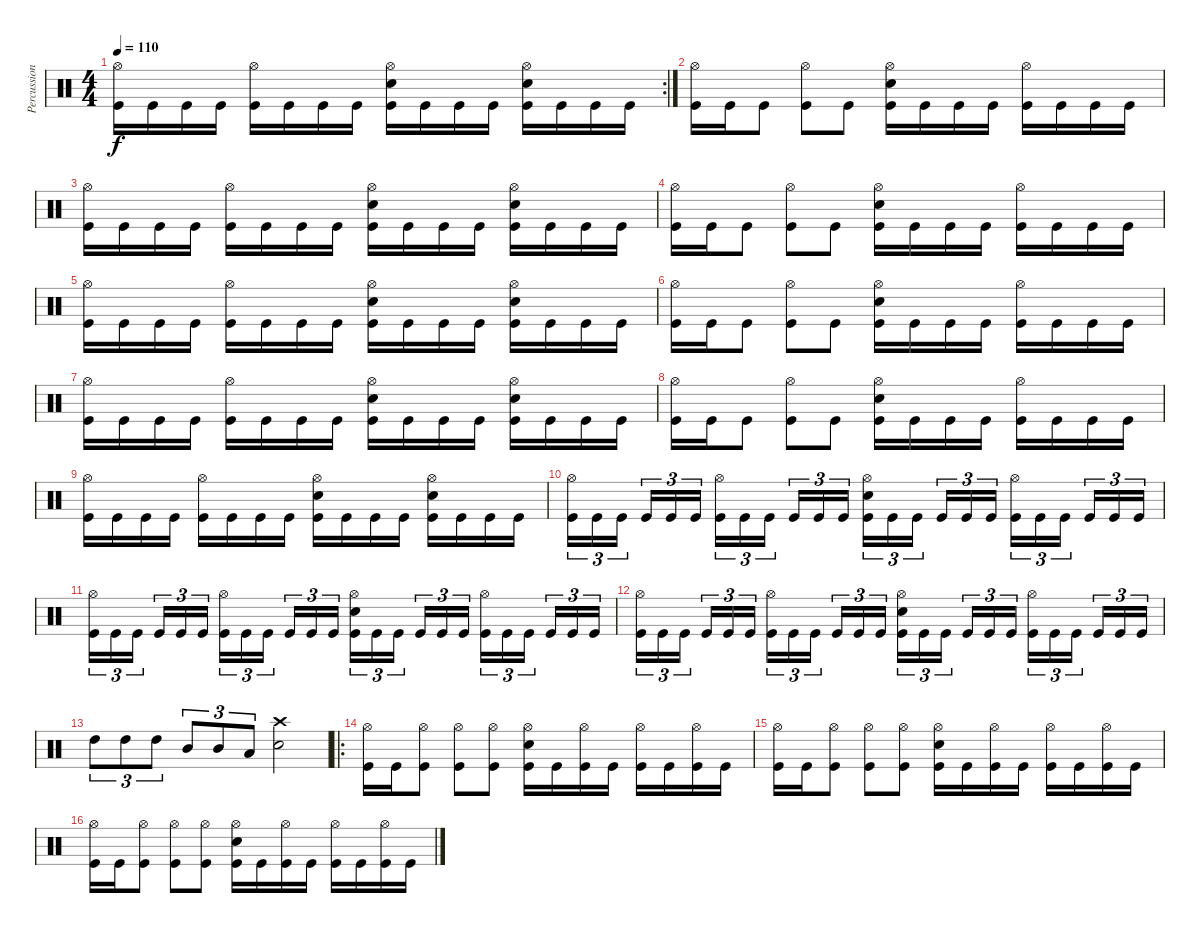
\track ("Percussion" "Percussion") {instrument percussion}
\staff {score}
\articulation defaults
\rc 2
\ts (4 4)
\tempo 110
\clef neutral
\ks c
("Hi-Hat (open)" "Kick (hit)").16{dy f} "Kick (hit)".16 "Kick (hit)".16 "Kick (hit)".16 ("Hi-Hat (open)" "Kick (hit)").16 "Kick (hit)".16 "Kick (hit)".16 "Kick (hit)".16 ("Hi-Hat (open)" "Electric Snare (hit)" "Kick (hit)").16 "Kick (hit)".16 "Kick (hit)".16 "Kick (hit)".16 ("Hi-Hat (open)" "Electric Snare (hit)" "Kick (hit)").16 "Kick (hit)".16 "Kick (hit)".16 "Kick (hit)".16 |
("Hi-Hat (open)" "Kick (hit)").16 "Kick (hit)".16 "Kick (hit)".8 ("Hi-Hat (open)" "Kick (hit)").8 "Kick (hit)".8 ("Hi-Hat (open)" "Electric Snare (hit)" "Kick (hit)").16 "Kick (hit)".16 "Kick (hit)".16 "Kick (hit)".16 ("Hi-Hat (open)" "Kick (hit)").16 "Kick (hit)".16 "Kick (hit)".16 "Kick (hit)".16 |
("Hi-Hat (open)" "Kick (hit)").16 "Kick (hit)".16 "Kick (hit)".16 "Kick (hit)".16 ("Hi-Hat (open)" "Kick (hit)").16 "Kick (hit)".16 "Kick (hit)".16 "Kick (hit)".16 ("Hi-Hat (open)" "Electric Snare (hit)" "Kick (hit)").16 "Kick (hit)".16 "Kick (hit)".16 "Kick (hit)".16 ("Hi-Hat (open)" "Electric Snare (hit)" "Kick (hit)").16 "Kick (hit)".16 "Kick (hit)".16 "Kick (hit)".16 |
("Hi-Hat (open)" "Kick (hit)").16 "Kick (hit)".16 "Kick (hit)".8 ("Hi-Hat (open)" "Kick (hit)").8 "Kick (hit)".8 ("Hi-Hat (open)" "Electric Snare (hit)" "Kick (hit)").16 "Kick (hit)".16 "Kick (hit)".16 "Kick (hit)".16 ("Hi-Hat (open)" "Kick (hit)").16 "Kick (hit)".16 "Kick (hit)".16 "Kick (hit)".16 |
("Hi-Hat (open)" "Kick (hit)").16 "Kick (hit)".16 "Kick (hit)".16 "Kick (hit)".16 ("Hi-Hat (open)" "Kick (hit)").16 "Kick (hit)".16 "Kick (hit)".16 "Kick (hit)".16 ("Hi-Hat (open)" "Electric Snare (hit)" "Kick (hit)").16 "Kick (hit)".16 "Kick (hit)".16 "Kick (hit)".16 ("Hi-Hat (open)" "Electric Snare (hit)" "Kick (hit)").16 "Kick (hit)".16 "Kick (hit)".16 "Kick (hit)".16 |
("Hi-Hat (open)" "Kick (hit)").16 "Kick (hit)".16 "Kick (hit)".8 ("Hi-Hat (open)" "Kick (hit)").8 "Kick (hit)".8 ("Hi-Hat (open)" "Electric Snare (hit)" "Kick (hit)").16 "Kick (hit)".16 "Kick (hit)".16 "Kick (hit)".16 ("Hi-Hat (open)" "Kick (hit)").16 "Kick (hit)".16 "Kick (hit)".16 "Kick (hit)".16 |
("Hi-Hat (open)" "Kick (hit)").16 "Kick (hit)".16 "Kick (hit)".16 "Kick (hit)".16 ("Hi-Hat (open)" "Kick (hit)").16 "Kick (hit)".16 "Kick (hit)".16 "Kick (hit)".16 ("Hi-Hat (open)" "Electric Snare (hit)" "Kick (hit)").16 "Kick (hit)".16 "Kick (hit)".16 "Kick (hit)".16 ("Hi-Hat (open)" "Electric Snare (hit)" "Kick (hit)").16 "Kick (hit)".16 "Kick (hit)".16 "Kick (hit)".16 |
("Hi-Hat (open)" "Kick (hit)").16 "Kick (hit)".16 "Kick (hit)".8 ("Hi-Hat (open)" "Kick (hit)").8 "Kick (hit)".8 ("Hi-Hat (open)" "Electric Snare (hit)" "Kick (hit)").16 "Kick (hit)".16 "Kick (hit)".16 "Kick (hit)".16 ("Hi-Hat (open)" "Kick (hit)").16 "Kick (hit)".16 "Kick (hit)".16 "Kick (hit)".16 |
("Hi-Hat (open)" "Kick (hit)").16 "Kick (hit)".16 "Kick (hit)".16 "Kick (hit)".16 ("Hi-Hat (open)" "Kick (hit)").16 "Kick (hit)".16 "Kick (hit)".16 "Kick (hit)".16 ("Hi-Hat (open)" "Electric Snare (hit)" "Kick (hit)").16 "Kick (hit)".16 "Kick (hit)".16 "Kick (hit)".16 ("Hi-Hat (open)" "Electric Snare (hit)" "Kick (hit)").16 "Kick (hit)".16 "Kick (hit)".16 "Kick (hit)".16 |
("Hi-Hat (open)" "Kick (hit)").16{tu (3 2)} "Kick (hit)".16{tu (3 2)} "Kick (hit)".16{tu (3 2) beam splitsecondary} "Kick (hit)".16{tu (3 2)} "Kick (hit)".16{tu (3 2)} "Kick (hit)".16{tu (3 2)} ("Hi-Hat (open)" "Kick (hit)").16{tu (3 2)} "Kick (hit)".16{tu (3 2)} "Kick (hit)".16{tu (3 2) beam splitsecondary} "Kick (hit)".16{tu (3 2)} "Kick (hit)".16{tu (3 2)} "Kick (hit)".16{tu (3 2)} ("Hi-Hat (open)" "Electric Snare (hit)" "Kick (hit)").16{tu (3 2)} "Kick (hit)".16{tu (3 2)} "Kick (hit)".16{tu (3 2) beam splitsecondary} "Kick (hit)".16{tu (3 2)} "Kick (hit)".16{tu (3 2)} "Kick (hit)".16{tu (3 2)} ("Hi-Hat (open)" "Kick (hit)").16{tu (3 2)} "Kick (hit)".16{tu (3 2)} "Kick (hit)".16{tu (3 2) beam splitsecondary} "Kick (hit)".16{tu (3 2)} "Kick (hit)".16{tu (3 2)} "Kick (hit)".16{tu (3 2)} |
("Hi-Hat (open)" "Kick (hit)").16{tu (3 2)} "Kick (hit)".16{tu (3 2)} "Kick (hit)".16{tu (3 2) beam splitsecondary} "Kick (hit)".16{tu (3 2)} "Kick (hit)".16{tu (3 2)} "Kick (hit)".16{tu (3 2)} ("Hi-Hat (open)" "Kick (hit)").16{tu (3 2)} "Kick (hit)".16{tu (3 2)} "Kick (hit)".16{tu (3 2) beam splitsecondary} "Kick (hit)".16{tu (3 2)} "Kick (hit)".16{tu (3 2)} "Kick (hit)".16{tu (3 2)} ("Hi-Hat (open)" "Electric Snare (hit)" "Kick (hit)").16{tu (3 2)} "Kick (hit)".16{tu (3 2)} "Kick (hit)".16{tu (3 2) beam splitsecondary} "Kick (hit)".16{tu (3 2)} "Kick (hit)".16{tu (3 2)} "Kick (hit)".16{tu (3 2)} ("Hi-Hat (open)" "Kick (hit)").16{tu (3 2)} "Kick (hit)".16{tu (3 2)} "Kick (hit)".16{tu (3 2) beam splitsecondary} "Kick (hit)".16{tu (3 2)} "Kick (hit)".16{tu (3 2)} "Kick (hit)".16{tu (3 2)} |
("Hi-Hat (open)" "Kick (hit)").16{tu (3 2)} "Kick (hit)".16{tu (3 2)} "Kick (hit)".16{tu (3 2) beam splitsecondary} "Kick (hit)".16{tu (3 2)} "Kick (hit)".16{tu (3 2)} "Kick (hit)".16{tu (3 2)} ("Hi-Hat (open)" "Kick (hit)").16{tu (3 2)} "Kick (hit)".16{tu (3 2)} "Kick (hit)".16{tu (3 2) beam splitsecondary} "Kick (hit)".16{tu (3 2)} "Kick (hit)".16{tu (3 2)} "Kick (hit)".16{tu (3 2)} ("Hi-Hat (open)" "Electric Snare (hit)" "Kick (hit)").16{tu (3 2)} "Kick (hit)".16{tu (3 2)} "Kick (hit)".16{tu (3 2) beam splitsecondary} "Kick (hit)".16{tu (3 2)} "Kick (hit)".16{tu (3 2)} "Kick (hit)".16{tu (3 2)} ("Hi-Hat (open)" "Kick (hit)").16{tu (3 2)} "Kick (hit)".16{tu (3 2)} "Kick (hit)".16{tu (3 2) beam splitsecondary} "Kick (hit)".16{tu (3 2)} "Kick (hit)".16{tu (3 2)} "Kick (hit)".16{tu (3 2)} |
"High Tom (hit)".8{tu (3 2)} "High Tom (hit)".8{tu (3 2)} "High Tom (hit)".8{tu (3 2)} "Mid Tom (hit)".8{tu (3 2)} "Mid Tom (hit)".8{tu (3 2)} "Low Tom (hit)".8{tu (3 2)} ("Crash high (hit)" "Electric Snare (hit)").2 |
\ro
("Hi-Hat (open)" "Kick (hit)").16 "Kick (hit)".16 ("Hi-Hat (open)" "Kick (hit)").8 ("Hi-Hat (open)" "Kick (hit)").8 ("Hi-Hat (open)" "Kick (hit)").8 ("Hi-Hat (open)" "Electric Snare (hit)" "Kick (hit)").16 "Kick (hit)".16 ("Hi-Hat (open)" "Kick (hit)").16 "Kick (hit)".16 ("Hi-Hat (open)" "Kick (hit)").16 "Kick (hit)".16 ("Hi-Hat (open)" "Kick (hit)").16 "Kick (hit)".16 |
("Hi-Hat (open)" "Kick (hit)").16 "Kick (hit)".16 ("Hi-Hat (open)" "Kick (hit)").8 ("Hi-Hat (open)" "Kick (hit)").8 ("Hi-Hat (open)" "Kick (hit)").8 ("Hi-Hat (open)" "Electric Snare (hit)" "Kick (hit)").16 "Kick (hit)".16 ("Hi-Hat (open)" "Kick (hit)").16 "Kick (hit)".16 ("Hi-Hat (open)" "Kick (hit)").16 "Kick (hit)".16 ("Hi-Hat (open)" "Kick (hit)").16 "Kick (hit)".16 |
("Hi-Hat (open)" "Kick (hit)").16 "Kick (hit)".16 ("Hi-Hat (open)" "Kick (hit)").8 ("Hi-Hat (open)" "Kick (hit)").8 ("Hi-Hat (open)" "Kick (hit)").8 ("Hi-Hat (open)" "Electric Snare (hit)" "Kick (hit)").16 "Kick (hit)".16 ("Hi-Hat (open)" "Kick (hit)").16 "Kick (hit)".16 ("Hi-Hat (open)" "Kick (hit)").16 "Kick (hit)".16 ("Hi-Hat (open)" "Kick (hit)").16 "Kick (hit)".16
